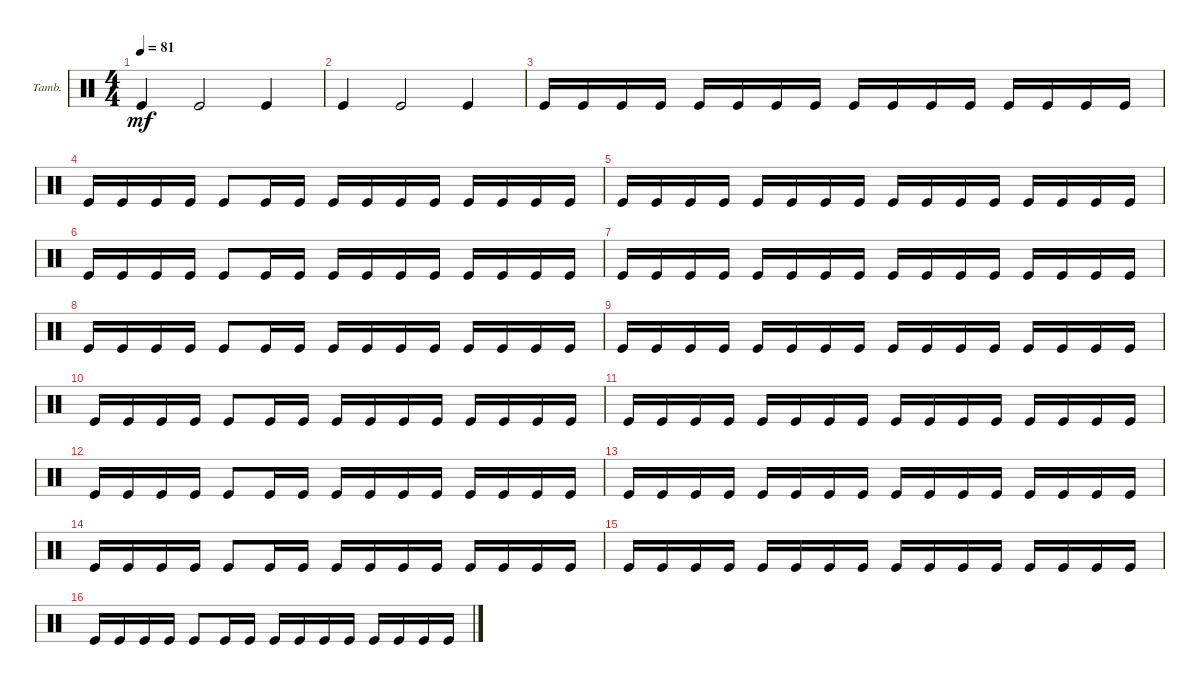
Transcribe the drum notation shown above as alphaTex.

\bracketExtendMode groupsimilarinstruments
\firstSystemTrackNameOrientation horizontal
\otherSystemsTrackNameOrientation horizontal
\track ("Tambourine" "Tamb.") {instrument percussion}
\staff {score}
\articulation defaults
\ts (4 4)
\tempo 81
\clef neutral
\ks c "Kick (hit)".4{dy mf} "Kick (hit)".2 "Kick (hit)".4
|
"Kick (hit)".4 "Kick (hit)".2 "Kick (hit)".4 |
"Kick (hit)".16 "Kick (hit)".16 "Kick (hit)".16 "Kick (hit)".16 "Kick (hit)".16 "Kick (hit)".16 "Kick (hit)".16 "Kick (hit)".16 "Kick (hit)".16 "Kick (hit)".16 "Kick (hit)".16 "Kick (hit)".16 "Kick (hit)".16 "Kick (hit)".16 "Kick (hit)".16 "Kick (hit)".16 |
"Kick (hit)".16 "Kick (hit)".16 "Kick (hit)".16 "Kick (hit)".16 "Kick (hit)".8 "Kick (hit)".16 "Kick (hit)".16 "Kick (hit)".16 "Kick (hit)".16 "Kick (hit)".16 "Kick (hit)".16 "Kick (hit)".16 "Kick (hit)".16 "Kick (hit)".16 "Kick (hit)".16 |
"Kick (hit)".16 "Kick (hit)".16 "Kick (hit)".16 "Kick (hit)".16 "Kick (hit)".16 "Kick (hit)".16 "Kick (hit)".16 "Kick (hit)".16 "Kick (hit)".16 "Kick (hit)".16 "Kick (hit)".16 "Kick (hit)".16 "Kick (hit)".16 "Kick (hit)".16 "Kick (hit)".16 "Kick (hit)".16 |
"Kick (hit)".16 "Kick (hit)".16 "Kick (hit)".16 "Kick (hit)".16 "Kick (hit)".8 "Kick (hit)".16 "Kick (hit)".16 "Kick (hit)".16 "Kick (hit)".16 "Kick (hit)".16 "Kick (hit)".16 "Kick (hit)".16 "Kick (hit)".16 "Kick (hit)".16 "Kick (hit)".16 |
"Kick (hit)".16 "Kick (hit)".16 "Kick (hit)".16 "Kick (hit)".16 "Kick (hit)".16 "Kick (hit)".16 "Kick (hit)".16 "Kick (hit)".16 "Kick (hit)".16 "Kick (hit)".16 "Kick (hit)".16 "Kick (hit)".16 "Kick (hit)".16 "Kick (hit)".16 "Kick (hit)".16 "Kick (hit)".16 |
"Kick (hit)".16 "Kick (hit)".16 "Kick (hit)".16 "Kick (hit)".16 "Kick (hit)".8 "Kick (hit)".16 "Kick (hit)".16 "Kick (hit)".16 "Kick (hit)".16 "Kick (hit)".16 "Kick (hit)".16 "Kick (hit)".16 "Kick (hit)".16 "Kick (hit)".16 "Kick (hit)".16 |
"Kick (hit)".16 "Kick (hit)".16 "Kick (hit)".16 "Kick (hit)".16 "Kick (hit)".16 "Kick (hit)".16 "Kick (hit)".16 "Kick (hit)".16 "Kick (hit)".16 "Kick (hit)".16 "Kick (hit)".16 "Kick (hit)".16 "Kick (hit)".16 "Kick (hit)".16 "Kick (hit)".16 "Kick (hit)".16 |
"Kick (hit)".16 "Kick (hit)".16 "Kick (hit)".16 "Kick (hit)".16 "Kick (hit)".8 "Kick (hit)".16 "Kick (hit)".16 "Kick (hit)".16 "Kick (hit)".16 "Kick (hit)".16 "Kick (hit)".16 "Kick (hit)".16 "Kick (hit)".16 "Kick (hit)".16 "Kick (hit)".16 |
"Kick (hit)".16 "Kick (hit)".16 "Kick (hit)".16 "Kick (hit)".16 "Kick (hit)".16 "Kick (hit)".16 "Kick (hit)".16 "Kick (hit)".16 "Kick (hit)".16 "Kick (hit)".16 "Kick (hit)".16 "Kick (hit)".16 "Kick (hit)".16 "Kick (hit)".16 "Kick (hit)".16 "Kick (hit)".16 |
"Kick (hit)".16 "Kick (hit)".16 "Kick (hit)".16 "Kick (hit)".16 "Kick (hit)".8 "Kick (hit)".16 "Kick (hit)".16 "Kick (hit)".16 "Kick (hit)".16 "Kick (hit)".16 "Kick (hit)".16 "Kick (hit)".16 "Kick (hit)".16 "Kick (hit)".16 "Kick (hit)".16 |
"Kick (hit)".16 "Kick (hit)".16 "Kick (hit)".16 "Kick (hit)".16 "Kick (hit)".16 "Kick (hit)".16 "Kick (hit)".16 "Kick (hit)".16 "Kick (hit)".16 "Kick (hit)".16 "Kick (hit)".16 "Kick (hit)".16 "Kick (hit)".16 "Kick (hit)".16 "Kick (hit)".16 "Kick (hit)".16 |
"Kick (hit)".16 "Kick (hit)".16 "Kick (hit)".16 "Kick (hit)".16 "Kick (hit)".8 "Kick (hit)".16 "Kick (hit)".16 "Kick (hit)".16 "Kick (hit)".16 "Kick (hit)".16 "Kick (hit)".16 "Kick (hit)".16 "Kick (hit)".16 "Kick (hit)".16 "Kick (hit)".16 |
"Kick (hit)".16 "Kick (hit)".16 "Kick (hit)".16 "Kick (hit)".16 "Kick (hit)".16 "Kick (hit)".16 "Kick (hit)".16 "Kick (hit)".16 "Kick (hit)".16 "Kick (hit)".16 "Kick (hit)".16 "Kick (hit)".16 "Kick (hit)".16 "Kick (hit)".16 "Kick (hit)".16 "Kick (hit)".16 |
"Kick (hit)".16 "Kick (hit)".16 "Kick (hit)".16 "Kick (hit)".16 "Kick (hit)".8 "Kick (hit)".16 "Kick (hit)".16 "Kick (hit)".16 "Kick (hit)".16 "Kick (hit)".16 "Kick (hit)".16 "Kick (hit)".16 "Kick (hit)".16 "Kick (hit)".16 "Kick (hit)".16
